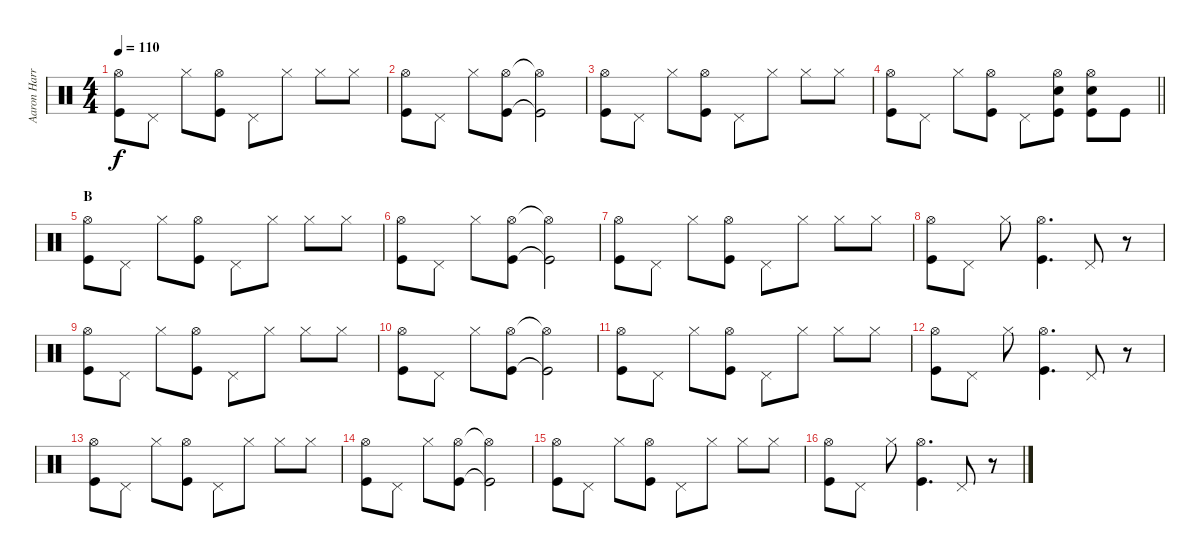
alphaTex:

\track ("Aaron Harris" "Aaron Harr") {instrument percussion}
\staff {score}
\articulation defaults
\ts (4 4)
\tempo 110
\clef neutral
\ks c
("Hi-Hat (open)" "Kick (hit)").8{dy f} "Pedal Hi-Hat (hit)".8 "Hi-Hat (closed)".8 ("Hi-Hat (open)" "Kick (hit)").8 "Pedal Hi-Hat (hit)".8 "Hi-Hat (closed)".8 "Hi-Hat (closed)".8 "Hi-Hat (closed)".8 |
("Hi-Hat (open)" "Kick (hit)").8 "Pedal Hi-Hat (hit)".8 "Hi-Hat (closed)".8 ("Hi-Hat (open)" "Kick (hit)").8 ("Hi-Hat (open)"{t} "Kick (hit)"{t}).2 |
("Hi-Hat (open)" "Kick (hit)").8 "Pedal Hi-Hat (hit)".8 "Hi-Hat (closed)".8 ("Hi-Hat (open)" "Kick (hit)").8 "Pedal Hi-Hat (hit)".8 "Hi-Hat (closed)".8 "Hi-Hat (closed)".8 "Hi-Hat (closed)".8 |
\barLineRight lightlight
("Hi-Hat (open)" "Kick (hit)").8 "Pedal Hi-Hat (hit)".8 "Hi-Hat (closed)".8 ("Hi-Hat (open)" "Kick (hit)").8 "Pedal Hi-Hat (hit)".8 ("Hi-Hat (open)" "Snare (hit) 2" "Kick (hit)").8 ("Hi-Hat (open)" "Snare (hit) 2" "Kick (hit)").8 "Kick (hit)".8 |
\section ("" "B")
("Hi-Hat (open)" "Kick (hit)").8 "Pedal Hi-Hat (hit)".8 "Hi-Hat (closed)".8 ("Hi-Hat (open)" "Kick (hit)").8 "Pedal Hi-Hat (hit)".8 "Hi-Hat (closed)".8 "Hi-Hat (closed)".8 "Hi-Hat (closed)".8 |
("Hi-Hat (open)" "Kick (hit)").8 "Pedal Hi-Hat (hit)".8 "Hi-Hat (closed)".8 ("Hi-Hat (open)" "Kick (hit)").8 ("Hi-Hat (open)"{t} "Kick (hit)"{t}).2 |
("Hi-Hat (open)" "Kick (hit)").8 "Pedal Hi-Hat (hit)".8 "Hi-Hat (closed)".8 ("Hi-Hat (open)" "Kick (hit)").8 "Pedal Hi-Hat (hit)".8 "Hi-Hat (closed)".8 "Hi-Hat (closed)".8 "Hi-Hat (closed)".8 |
("Hi-Hat (open)" "Kick (hit)").8 "Pedal Hi-Hat (hit)".8 "Hi-Hat (closed)".8 ("Hi-Hat (open)" "Kick (hit)").4{d} "Pedal Hi-Hat (hit)".8 r.8 |
("Hi-Hat (open)" "Kick (hit)").8 "Pedal Hi-Hat (hit)".8 "Hi-Hat (closed)".8 ("Hi-Hat (open)" "Kick (hit)").8 "Pedal Hi-Hat (hit)".8 "Hi-Hat (closed)".8 "Hi-Hat (closed)".8 "Hi-Hat (closed)".8 |
("Hi-Hat (open)" "Kick (hit)").8 "Pedal Hi-Hat (hit)".8 "Hi-Hat (closed)".8 ("Hi-Hat (open)" "Kick (hit)").8 ("Hi-Hat (open)"{t} "Kick (hit)"{t}).2 |
("Hi-Hat (open)" "Kick (hit)").8 "Pedal Hi-Hat (hit)".8 "Hi-Hat (closed)".8 ("Hi-Hat (open)" "Kick (hit)").8 "Pedal Hi-Hat (hit)".8 "Hi-Hat (closed)".8 "Hi-Hat (closed)".8 "Hi-Hat (closed)".8 |
("Hi-Hat (open)" "Kick (hit)").8 "Pedal Hi-Hat (hit)".8 "Hi-Hat (closed)".8 ("Hi-Hat (open)" "Kick (hit)").4{d} "Pedal Hi-Hat (hit)".8 r.8 |
("Hi-Hat (open)" "Kick (hit)").8 "Pedal Hi-Hat (hit)".8 "Hi-Hat (closed)".8 ("Hi-Hat (open)" "Kick (hit)").8 "Pedal Hi-Hat (hit)".8 "Hi-Hat (closed)".8 "Hi-Hat (closed)".8 "Hi-Hat (closed)".8 |
("Hi-Hat (open)" "Kick (hit)").8 "Pedal Hi-Hat (hit)".8 "Hi-Hat (closed)".8 ("Hi-Hat (open)" "Kick (hit)").8 ("Hi-Hat (open)"{t} "Kick (hit)"{t}).2 |
("Hi-Hat (open)" "Kick (hit)").8 "Pedal Hi-Hat (hit)".8 "Hi-Hat (closed)".8 ("Hi-Hat (open)" "Kick (hit)").8 "Pedal Hi-Hat (hit)".8 "Hi-Hat (closed)".8 "Hi-Hat (closed)".8 "Hi-Hat (closed)".8 |
("Hi-Hat (open)" "Kick (hit)").8 "Pedal Hi-Hat (hit)".8 "Hi-Hat (closed)".8 ("Hi-Hat (open)" "Kick (hit)").4{d} "Pedal Hi-Hat (hit)".8 r.8
